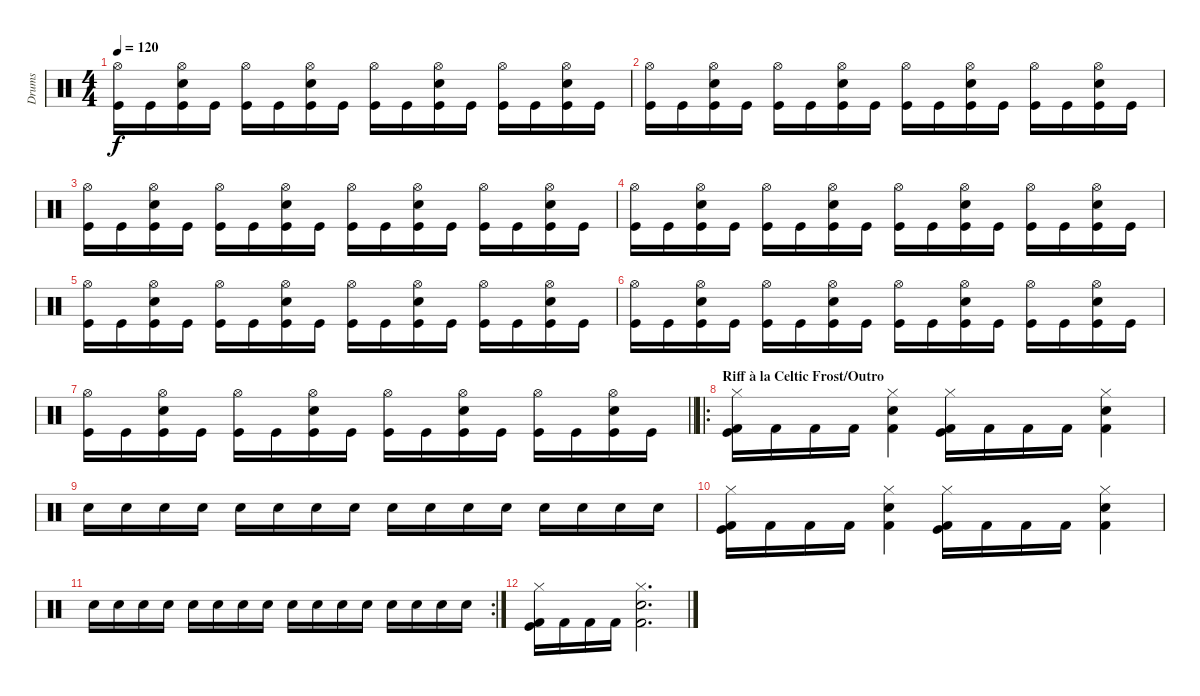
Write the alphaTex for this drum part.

\track ("Drums" "Drums") {instrument percussion}
\staff {score}
\articulation defaults
\ts (4 4)
\tempo 120
\clef neutral
\ks c
("Hi-Hat (open)" "Kick (hit)").16{dy f} "Kick (hit)".16 ("Hi-Hat (open)" "Snare (hit) 2" "Kick (hit)").16 "Kick (hit)".16 ("Hi-Hat (open)" "Kick (hit)").16 "Kick (hit)".16 ("Hi-Hat (open)" "Snare (hit) 2" "Kick (hit)").16 "Kick (hit)".16 ("Hi-Hat (open)" "Kick (hit)").16 "Kick (hit)".16 ("Hi-Hat (open)" "Snare (hit) 2" "Kick (hit)").16 "Kick (hit)".16 ("Hi-Hat (open)" "Kick (hit)").16 "Kick (hit)".16 ("Hi-Hat (open)" "Snare (hit) 2" "Kick (hit)").16 "Kick (hit)".16 |
("Hi-Hat (open)" "Kick (hit)").16 "Kick (hit)".16 ("Hi-Hat (open)" "Snare (hit) 2" "Kick (hit)").16 "Kick (hit)".16 ("Hi-Hat (open)" "Kick (hit)").16 "Kick (hit)".16 ("Hi-Hat (open)" "Snare (hit) 2" "Kick (hit)").16 "Kick (hit)".16 ("Hi-Hat (open)" "Kick (hit)").16 "Kick (hit)".16 ("Hi-Hat (open)" "Snare (hit) 2" "Kick (hit)").16 "Kick (hit)".16 ("Hi-Hat (open)" "Kick (hit)").16 "Kick (hit)".16 ("Hi-Hat (open)" "Snare (hit) 2" "Kick (hit)").16 "Kick (hit)".16 |
("Hi-Hat (open)" "Kick (hit)").16 "Kick (hit)".16 ("Hi-Hat (open)" "Snare (hit) 2" "Kick (hit)").16 "Kick (hit)".16 ("Hi-Hat (open)" "Kick (hit)").16 "Kick (hit)".16 ("Hi-Hat (open)" "Snare (hit) 2" "Kick (hit)").16 "Kick (hit)".16 ("Hi-Hat (open)" "Kick (hit)").16 "Kick (hit)".16 ("Hi-Hat (open)" "Snare (hit) 2" "Kick (hit)").16 "Kick (hit)".16 ("Hi-Hat (open)" "Kick (hit)").16 "Kick (hit)".16 ("Hi-Hat (open)" "Snare (hit) 2" "Kick (hit)").16 "Kick (hit)".16 |
("Hi-Hat (open)" "Kick (hit)").16 "Kick (hit)".16 ("Hi-Hat (open)" "Snare (hit) 2" "Kick (hit)").16 "Kick (hit)".16 ("Hi-Hat (open)" "Kick (hit)").16 "Kick (hit)".16 ("Hi-Hat (open)" "Snare (hit) 2" "Kick (hit)").16 "Kick (hit)".16 ("Hi-Hat (open)" "Kick (hit)").16 "Kick (hit)".16 ("Hi-Hat (open)" "Snare (hit) 2" "Kick (hit)").16 "Kick (hit)".16 ("Hi-Hat (open)" "Kick (hit)").16 "Kick (hit)".16 ("Hi-Hat (open)" "Snare (hit) 2" "Kick (hit)").16 "Kick (hit)".16 |
("Hi-Hat (open)" "Kick (hit)").16 "Kick (hit)".16 ("Hi-Hat (open)" "Snare (hit) 2" "Kick (hit)").16 "Kick (hit)".16 ("Hi-Hat (open)" "Kick (hit)").16 "Kick (hit)".16 ("Hi-Hat (open)" "Snare (hit) 2" "Kick (hit)").16 "Kick (hit)".16 ("Hi-Hat (open)" "Kick (hit)").16 "Kick (hit)".16 ("Hi-Hat (open)" "Snare (hit) 2" "Kick (hit)").16 "Kick (hit)".16 ("Hi-Hat (open)" "Kick (hit)").16 "Kick (hit)".16 ("Hi-Hat (open)" "Snare (hit) 2" "Kick (hit)").16 "Kick (hit)".16 |
("Hi-Hat (open)" "Kick (hit)").16 "Kick (hit)".16 ("Hi-Hat (open)" "Snare (hit) 2" "Kick (hit)").16 "Kick (hit)".16 ("Hi-Hat (open)" "Kick (hit)").16 "Kick (hit)".16 ("Hi-Hat (open)" "Snare (hit) 2" "Kick (hit)").16 "Kick (hit)".16 ("Hi-Hat (open)" "Kick (hit)").16 "Kick (hit)".16 ("Hi-Hat (open)" "Snare (hit) 2" "Kick (hit)").16 "Kick (hit)".16 ("Hi-Hat (open)" "Kick (hit)").16 "Kick (hit)".16 ("Hi-Hat (open)" "Snare (hit) 2" "Kick (hit)").16 "Kick (hit)".16 |
\barLineRight lightlight
("Hi-Hat (open)" "Kick (hit)").16 "Kick (hit)".16 ("Hi-Hat (open)" "Snare (hit) 2" "Kick (hit)").16 "Kick (hit)".16 ("Hi-Hat (open)" "Kick (hit)").16 "Kick (hit)".16 ("Hi-Hat (open)" "Snare (hit) 2" "Kick (hit)").16 "Kick (hit)".16 ("Hi-Hat (open)" "Kick (hit)").16 "Kick (hit)".16 ("Hi-Hat (open)" "Snare (hit) 2" "Kick (hit)").16 "Kick (hit)".16 ("Hi-Hat (open)" "Kick (hit)").16 "Kick (hit)".16 ("Hi-Hat (open)" "Snare (hit) 2" "Kick (hit)").16 "Kick (hit)".16 |
\ro
\section ("" "Riff à la Celtic Frost/Outro")
("Kick (hit) 2" "Hi-Hat (closed)" "Kick (hit)").16 "Kick (hit) 2".16 "Kick (hit) 2".16 "Kick (hit) 2".16 ("Kick (hit) 2" "Hi-Hat (closed)" "Snare (hit) 2").4 ("Kick (hit) 2" "Hi-Hat (closed)" "Kick (hit)").16 "Kick (hit) 2".16 "Kick (hit) 2".16 "Kick (hit) 2".16 ("Kick (hit) 2" "Hi-Hat (closed)" "Snare (hit) 2").4 |
"Snare (hit) 2".16 "Snare (hit) 2".16 "Snare (hit) 2".16 "Snare (hit) 2".16 "Snare (hit) 2".16 "Snare (hit) 2".16 "Snare (hit) 2".16 "Snare (hit) 2".16 "Snare (hit) 2".16 "Snare (hit) 2".16 "Snare (hit) 2".16 "Snare (hit) 2".16 "Snare (hit) 2".16 "Snare (hit) 2".16 "Snare (hit) 2".16 "Snare (hit) 2".16 |
("Kick (hit) 2" "Hi-Hat (closed)" "Kick (hit)").16 "Kick (hit) 2".16 "Kick (hit) 2".16 "Kick (hit) 2".16 ("Kick (hit) 2" "Hi-Hat (closed)" "Snare (hit) 2").4 ("Kick (hit) 2" "Hi-Hat (closed)" "Kick (hit)").16 "Kick (hit) 2".16 "Kick (hit) 2".16 "Kick (hit) 2".16 ("Kick (hit) 2" "Hi-Hat (closed)" "Snare (hit) 2").4 |
\rc 2 "Snare (hit) 2".16 "Snare (hit) 2".16 "Snare (hit) 2".16 "Snare (hit) 2".16 "Snare (hit) 2".16 "Snare (hit) 2".16 "Snare (hit) 2".16 "Snare (hit) 2".16 "Snare (hit) 2".16 "Snare (hit) 2".16 "Snare (hit) 2".16 "Snare (hit) 2".16 "Snare (hit) 2".16 "Snare (hit) 2".16 "Snare (hit) 2".16 "Snare (hit) 2".16
|
("Kick (hit) 2" "Hi-Hat (closed)" "Kick (hit)").16 "Kick (hit) 2".16 "Kick (hit) 2".16 "Kick (hit) 2".16 ("Kick (hit) 2" "Hi-Hat (closed)" "Snare (hit) 2").2{d}
